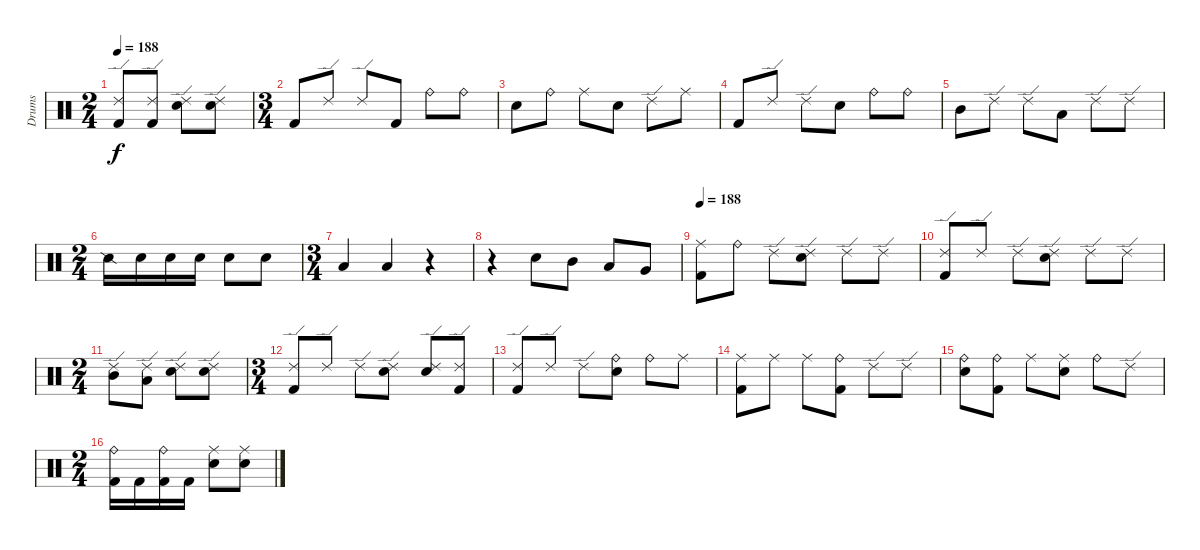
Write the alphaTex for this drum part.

\track ("Drums" "Drums") {instrument percussion}
\staff {score}
\articulation defaults
\ts (2 4)
\tempo 188
\clef neutral
\ks c
("Ride (edge) 2" "Kick (hit) 2").8{dy f} ("Ride (edge) 2" "Kick (hit) 2").8 ("Electric Snare (hit)" "Ride (edge) 2").8 ("Electric Snare (hit)" "Ride (edge) 2").8 |
\ts (3 4)
"Kick (hit) 2".8 "Ride (edge) 2".8 "Ride (edge) 2".8 "Kick (hit) 2".8 "Ride (bell)".8 "Ride (bell)".8 |
"Electric Snare (hit)".8 "Ride (bell)".8 "Ride (middle)".8 "Electric Snare (hit)".8 "Ride (edge) 2".8 "Ride (middle)".8 |
"Kick (hit) 2".8 "Ride (edge) 2".8 "Ride (edge) 2".8 "Electric Snare (hit)".8 "Ride (bell)".8 "Ride (bell)".8 |
"Mid Tom (hit)".8 "Ride (edge) 2".8 "Ride (edge) 2".8 "Low Tom (hit)".8 "Ride (edge) 2".8 "Ride (edge) 2".8 |
\ts (2 4)
"Snare (side stick) 2".16 "Snare (hit) 2".16 "Electric Snare (hit)".16 "Electric Snare (hit)".16 "Electric Snare (hit)".8 "Electric Snare (hit)".8 |
\ts (3 4)
"Low Tom (hit)".4 "Low Floor Tom (hit)".4 r.4 |
r.4 "Electric Snare (hit)".8 "Mid Tom (hit)".8 "Low Tom (hit)".8 "Very Low Tom (hit)".8 |
\tempo 188
("Ride (middle)" "Kick (hit) 2").8 "Ride (bell)".8 "Ride (edge) 2".8 ("Electric Snare (hit)" "Ride (edge) 2").8 "Ride (edge) 2".8 "Ride (edge) 2".8 |
("Ride (edge) 2" "Kick (hit) 2").8 "Ride (edge) 2".8 "Ride (edge) 2".8 ("Electric Snare (hit)" "Ride (edge) 2").8 "Ride (edge) 2".8 "Ride (edge) 2".8 |
\ts (2 4)
("Ride (edge) 2" "Mid Tom (hit)").8 ("Ride (edge) 2" "Low Tom (hit)").8 ("Electric Snare (hit)" "Ride (edge) 2").8 ("Electric Snare (hit)" "Ride (edge) 2").8 |
\ts (3 4)
("Ride (edge) 2" "Kick (hit) 2").8 "Ride (edge) 2".8 "Ride (edge) 2".8 ("Electric Snare (hit)" "Ride (edge) 2").8 ("Electric Snare (hit)" "Ride (edge) 2").8 ("Ride (edge) 2" "Kick (hit) 2").8 |
("Ride (edge) 2" "Kick (hit) 2").8 "Ride (edge) 2".8 "Ride (edge) 2".8 ("Electric Snare (hit)" "Ride (bell)").8 "Ride (bell)".8 "Ride (middle)".8 |
("Ride (middle)" "Kick (hit) 2").8 "Ride (middle)".8 "Ride (middle)".8 ("Ride (bell)" "Kick (hit) 2").8 "Ride (edge) 2".8 "Ride (edge) 2".8 |
("Electric Snare (hit)" "Ride (bell)").8 ("Ride (bell)" "Kick (hit) 2").8 "Ride (middle)".8 ("Electric Snare (hit)" "Ride (middle)").8 "Ride (bell)".8 "Ride (edge) 2".8 |
\ts (2 4)
("Ride (bell)" "Kick (hit) 2").16 "Kick (hit) 2".16 ("Ride (bell)" "Kick (hit) 2").16 "Kick (hit) 2".16 ("Electric Snare (hit)" "Ride (middle)").8 ("Electric Snare (hit)" "Ride (middle)").8
